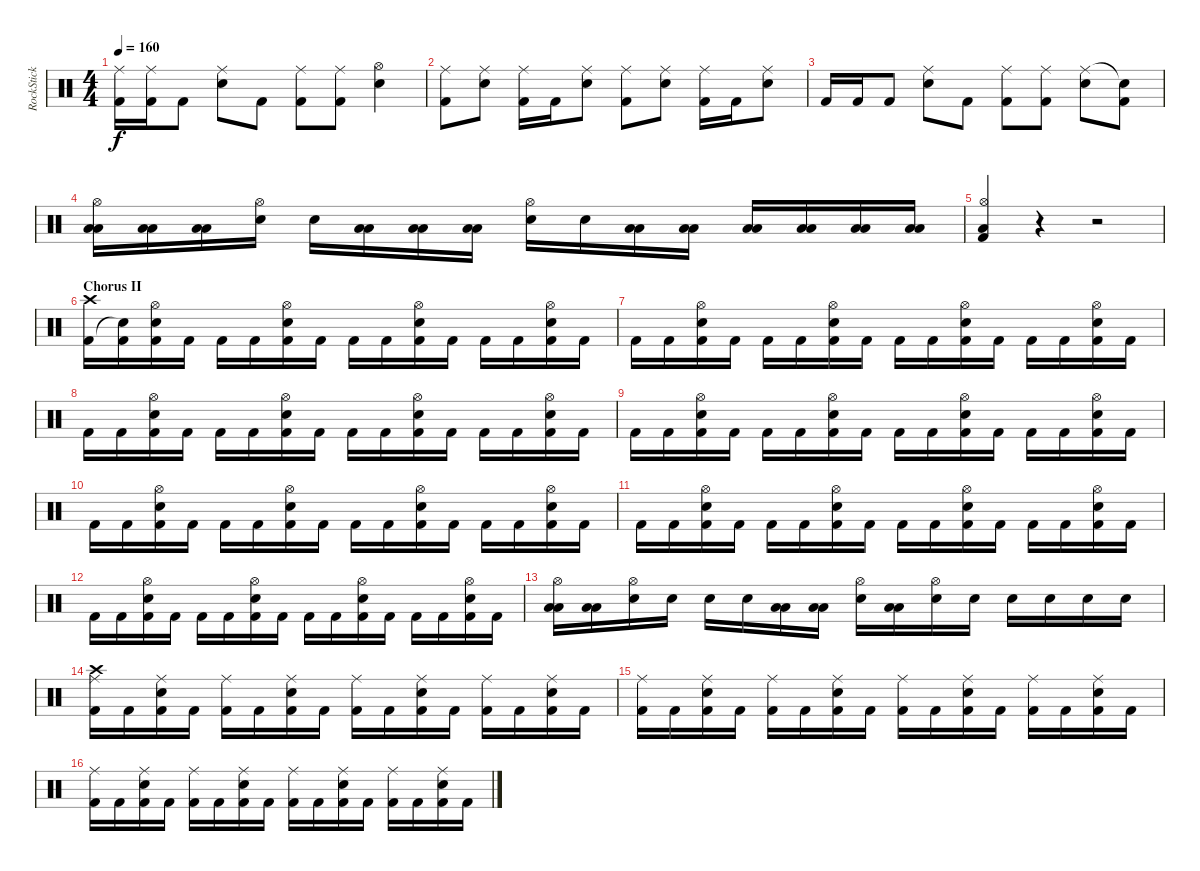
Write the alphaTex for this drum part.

\track ("RockStick" "RockStick") {instrument percussion}
\staff {score}
\articulation defaults
\ts (4 4)
\tempo 160
\clef neutral
\ks c
("Kick (hit) 2" "Ride (middle)").16{dy f} ("Kick (hit) 2" "Ride (middle)").16 "Kick (hit) 2".8 ("Electric Snare (hit)" "Ride (middle)").8 "Kick (hit) 2".8 ("Kick (hit) 2" "Ride (middle)").8 ("Kick (hit) 2" "Ride (middle)").8 ("Electric Snare (hit)" "Hi-Hat (open)").4 |
("Kick (hit) 2" "Ride (middle)").8 ("Electric Snare (hit)" "Ride (middle)").8 ("Kick (hit) 2" "Ride (middle)").16 "Kick (hit) 2".16 ("Electric Snare (hit)" "Ride (middle)").8 ("Kick (hit) 2" "Ride (middle)").8 ("Electric Snare (hit)" "Ride (middle)").8 ("Kick (hit) 2" "Ride (middle)").16 "Kick (hit) 2".16 ("Electric Snare (hit)" "Ride (middle)").8 |
"Kick (hit) 2".16 "Kick (hit) 2".16 "Kick (hit) 2".8 ("Electric Snare (hit)" "Ride (middle)").8 "Kick (hit) 2".8 ("Kick (hit) 2" "Ride (middle)").8 ("Kick (hit) 2" "Ride (middle)").8 ("Electric Snare (hit)" "Ride (middle)").8 ("Kick (hit) 2" "Snare (hit)"{t}).8 |
("Low Tom (hit)" "Low Tom (hit)" "Hi-Hat (open)").16 ("Low Tom (hit)" "Low Tom (hit)").16 ("Low Tom (hit)" "Low Tom (hit)").16 ("Electric Snare (hit)" "Hi-Hat (open)").16 "Electric Snare (hit)".16 ("Low Tom (hit)" "Low Tom (hit)").16 ("Low Tom (hit)" "Low Tom (hit)").16 ("Low Tom (hit)" "Low Tom (hit)").16 ("Electric Snare (hit)" "Hi-Hat (open)").16 "Electric Snare (hit)".16 ("Low Tom (hit)" "Low Tom (hit)").16 ("Low Tom (hit)" "Low Tom (hit)").16 ("Low Floor Tom (hit)" "Low Floor Tom (hit)").16 ("Low Floor Tom (hit)" "Low Floor Tom (hit)").16 ("Low Floor Tom (hit)" "Low Floor Tom (hit)").16 ("Low Floor Tom (hit)" "Low Floor Tom (hit)").16 |
("Kick (hit) 2" "Low Floor Tom (hit)" "Hi-Hat (open)").4 r.4 r.2 |
\section ("" "Chorus II")
("Crash high (hit)" "Kick (hit) 2").16 ("Kick (hit) 2" "Snare (hit)"{t}).16 ("Electric Snare (hit)" "Kick (hit) 2" "Hi-Hat (open)").16 "Kick (hit) 2".16 "Kick (hit) 2".16 "Kick (hit) 2".16 ("Electric Snare (hit)" "Kick (hit) 2" "Hi-Hat (open)").16 "Kick (hit) 2".16 "Kick (hit) 2".16 "Kick (hit) 2".16 ("Electric Snare (hit)" "Kick (hit) 2" "Hi-Hat (open)").16 "Kick (hit) 2".16 "Kick (hit) 2".16 "Kick (hit) 2".16 ("Electric Snare (hit)" "Kick (hit) 2" "Hi-Hat (open)").16 "Kick (hit) 2".16 |
"Kick (hit) 2".16 "Kick (hit) 2".16 ("Electric Snare (hit)" "Kick (hit) 2" "Hi-Hat (open)").16 "Kick (hit) 2".16 "Kick (hit) 2".16 "Kick (hit) 2".16 ("Electric Snare (hit)" "Kick (hit) 2" "Hi-Hat (open)").16 "Kick (hit) 2".16 "Kick (hit) 2".16 "Kick (hit) 2".16 ("Electric Snare (hit)" "Kick (hit) 2" "Hi-Hat (open)").16 "Kick (hit) 2".16 "Kick (hit) 2".16 "Kick (hit) 2".16 ("Electric Snare (hit)" "Kick (hit) 2" "Hi-Hat (open)").16 "Kick (hit) 2".16 |
"Kick (hit) 2".16 "Kick (hit) 2".16 ("Electric Snare (hit)" "Kick (hit) 2" "Hi-Hat (open)").16 "Kick (hit) 2".16 "Kick (hit) 2".16 "Kick (hit) 2".16 ("Electric Snare (hit)" "Kick (hit) 2" "Hi-Hat (open)").16 "Kick (hit) 2".16 "Kick (hit) 2".16 "Kick (hit) 2".16 ("Electric Snare (hit)" "Kick (hit) 2" "Hi-Hat (open)").16 "Kick (hit) 2".16 "Kick (hit) 2".16 "Kick (hit) 2".16 ("Electric Snare (hit)" "Kick (hit) 2" "Hi-Hat (open)").16 "Kick (hit) 2".16 |
"Kick (hit) 2".16 "Kick (hit) 2".16 ("Electric Snare (hit)" "Kick (hit) 2" "Hi-Hat (open)").16 "Kick (hit) 2".16 "Kick (hit) 2".16 "Kick (hit) 2".16 ("Electric Snare (hit)" "Kick (hit) 2" "Hi-Hat (open)").16 "Kick (hit) 2".16 "Kick (hit) 2".16 "Kick (hit) 2".16 ("Electric Snare (hit)" "Kick (hit) 2" "Hi-Hat (open)").16 "Kick (hit) 2".16 "Kick (hit) 2".16 "Kick (hit) 2".16 ("Electric Snare (hit)" "Kick (hit) 2" "Hi-Hat (open)").16 "Kick (hit) 2".16 |
"Kick (hit) 2".16 "Kick (hit) 2".16 ("Electric Snare (hit)" "Kick (hit) 2" "Hi-Hat (open)").16 "Kick (hit) 2".16 "Kick (hit) 2".16 "Kick (hit) 2".16 ("Electric Snare (hit)" "Kick (hit) 2" "Hi-Hat (open)").16 "Kick (hit) 2".16 "Kick (hit) 2".16 "Kick (hit) 2".16 ("Electric Snare (hit)" "Kick (hit) 2" "Hi-Hat (open)").16 "Kick (hit) 2".16 "Kick (hit) 2".16 "Kick (hit) 2".16 ("Electric Snare (hit)" "Kick (hit) 2" "Hi-Hat (open)").16 "Kick (hit) 2".16 |
"Kick (hit) 2".16 "Kick (hit) 2".16 ("Electric Snare (hit)" "Kick (hit) 2" "Hi-Hat (open)").16 "Kick (hit) 2".16 "Kick (hit) 2".16 "Kick (hit) 2".16 ("Electric Snare (hit)" "Kick (hit) 2" "Hi-Hat (open)").16 "Kick (hit) 2".16 "Kick (hit) 2".16 "Kick (hit) 2".16 ("Electric Snare (hit)" "Kick (hit) 2" "Hi-Hat (open)").16 "Kick (hit) 2".16 "Kick (hit) 2".16 "Kick (hit) 2".16 ("Electric Snare (hit)" "Kick (hit) 2" "Hi-Hat (open)").16 "Kick (hit) 2".16 |
"Kick (hit) 2".16 "Kick (hit) 2".16 ("Electric Snare (hit)" "Kick (hit) 2" "Hi-Hat (open)").16 "Kick (hit) 2".16 "Kick (hit) 2".16 "Kick (hit) 2".16 ("Electric Snare (hit)" "Kick (hit) 2" "Hi-Hat (open)").16 "Kick (hit) 2".16 "Kick (hit) 2".16 "Kick (hit) 2".16 ("Electric Snare (hit)" "Kick (hit) 2" "Hi-Hat (open)").16 "Kick (hit) 2".16 "Kick (hit) 2".16 "Kick (hit) 2".16 ("Electric Snare (hit)" "Kick (hit) 2" "Hi-Hat (open)").16 "Kick (hit) 2".16 |
("Low Tom (hit)" "Low Tom (hit)" "Hi-Hat (open)").16 ("Low Tom (hit)" "Low Tom (hit)").16 ("Electric Snare (hit)" "Hi-Hat (open)").16 "Electric Snare (hit)".16 "Electric Snare (hit)".16 "Electric Snare (hit)".16 ("Low Tom (hit)" "Low Tom (hit)").16 ("Low Tom (hit)" "Low Tom (hit)").16 ("Electric Snare (hit)" "Hi-Hat (open)").16 ("Low Tom (hit)" "Low Tom (hit)").16 ("Electric Snare (hit)" "Hi-Hat (open)").16 "Electric Snare (hit)".16 "Electric Snare (hit)".16 "Electric Snare (hit)".16 "Electric Snare (hit)".16 "Electric Snare (hit)".16 |
("Crash high (hit)" "Kick (hit) 2" "Ride (middle)").16 "Kick (hit) 2".16 ("Electric Snare (hit)" "Kick (hit) 2" "Ride (middle)").16 "Kick (hit) 2".16 ("Kick (hit) 2" "Ride (middle)").16 "Kick (hit) 2".16 ("Electric Snare (hit)" "Kick (hit) 2" "Ride (middle)").16 "Kick (hit) 2".16 ("Kick (hit) 2" "Ride (middle)").16 "Kick (hit) 2".16 ("Electric Snare (hit)" "Kick (hit) 2" "Ride (middle)").16 "Kick (hit) 2".16 ("Kick (hit) 2" "Ride (middle)").16 "Kick (hit) 2".16 ("Electric Snare (hit)" "Kick (hit) 2" "Ride (middle)").16 "Kick (hit) 2".16 |
("Kick (hit) 2" "Ride (middle)").16 "Kick (hit) 2".16 ("Electric Snare (hit)" "Kick (hit) 2" "Ride (middle)").16 "Kick (hit) 2".16 ("Kick (hit) 2" "Ride (middle)").16 "Kick (hit) 2".16 ("Electric Snare (hit)" "Kick (hit) 2" "Ride (middle)").16 "Kick (hit) 2".16 ("Kick (hit) 2" "Ride (middle)").16 "Kick (hit) 2".16 ("Electric Snare (hit)" "Kick (hit) 2" "Ride (middle)").16 "Kick (hit) 2".16 ("Kick (hit) 2" "Ride (middle)").16 "Kick (hit) 2".16 ("Electric Snare (hit)" "Kick (hit) 2" "Ride (middle)").16 "Kick (hit) 2".16 |
("Kick (hit) 2" "Ride (middle)").16 "Kick (hit) 2".16 ("Electric Snare (hit)" "Kick (hit) 2" "Ride (middle)").16 "Kick (hit) 2".16 ("Kick (hit) 2" "Ride (middle)").16 "Kick (hit) 2".16 ("Electric Snare (hit)" "Kick (hit) 2" "Ride (middle)").16 "Kick (hit) 2".16 ("Kick (hit) 2" "Ride (middle)").16 "Kick (hit) 2".16 ("Electric Snare (hit)" "Kick (hit) 2" "Ride (middle)").16 "Kick (hit) 2".16 ("Kick (hit) 2" "Ride (middle)").16 "Kick (hit) 2".16 ("Electric Snare (hit)" "Kick (hit) 2" "Ride (middle)").16 "Kick (hit) 2".16
